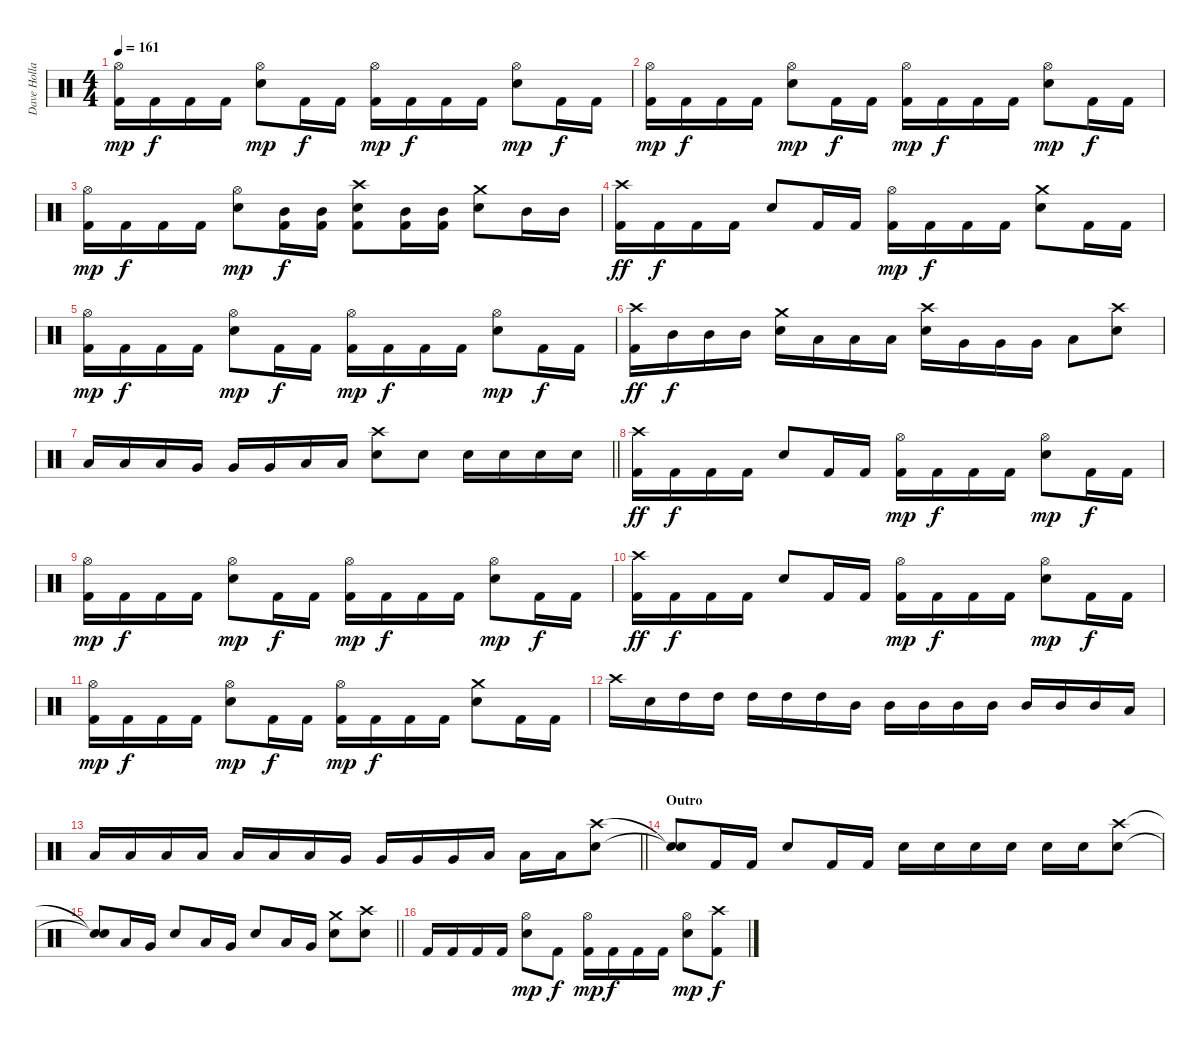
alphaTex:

\track ("Dave Holland" "Dave Holla") {instrument percussion}
\staff {score}
\articulation defaults
\ts (4 4)
\tempo 161
\clef neutral
\ks c
("Kick (hit) 2" "Hi-Hat (open)").16{dy mp} "Kick (hit) 2".16{dy f} "Kick (hit) 2".16 "Kick (hit) 2".16 ("Hi-Hat (open)" "Snare (hit) 2").8{dy mp} "Kick (hit) 2".16{dy f} "Kick (hit) 2".16 ("Kick (hit) 2" "Hi-Hat (open)").16{dy mp} "Kick (hit) 2".16{dy f} "Kick (hit) 2".16 "Kick (hit) 2".16 ("Hi-Hat (open)" "Snare (hit) 2").8{dy mp} "Kick (hit) 2".16{dy f} "Kick (hit) 2".16 |
("Kick (hit) 2" "Hi-Hat (open)").16{dy mp} "Kick (hit) 2".16{dy f} "Kick (hit) 2".16 "Kick (hit) 2".16 ("Hi-Hat (open)" "Snare (hit) 2").8{dy mp} "Kick (hit) 2".16{dy f} "Kick (hit) 2".16 ("Kick (hit) 2" "Hi-Hat (open)").16{dy mp} "Kick (hit) 2".16{dy f} "Kick (hit) 2".16 "Kick (hit) 2".16 ("Hi-Hat (open)" "Snare (hit) 2").8{dy mp} "Kick (hit) 2".16{dy f} "Kick (hit) 2".16 |
("Kick (hit) 2" "Hi-Hat (open)").16{dy mp} "Kick (hit) 2".16{dy f} "Kick (hit) 2".16 "Kick (hit) 2".16 ("Hi-Hat (open)" "Snare (hit) 2").8{dy mp} ("Kick (hit) 2" "Mid Tom (hit)").16{dy f} ("Kick (hit) 2" "Mid Tom (hit)").16 ("Kick (hit) 2" "Crash high (hit)" "Snare (hit) 2").8 ("Kick (hit) 2" "Mid Tom (hit)").16 ("Kick (hit) 2" "Mid Tom (hit)").16 ("Crash medium (hit)" "Snare (hit) 2").8 "Mid Tom (hit)".16 "Mid Tom (hit)".16 |
("Kick (hit) 2" "Crash high (hit)").16{dy ff} "Kick (hit) 2".16{dy f} "Kick (hit) 2".16 "Kick (hit) 2".16 "Snare (hit) 2".8 "Kick (hit) 2".16 "Kick (hit) 2".16 ("Kick (hit) 2" "Hi-Hat (open)").16{dy mp} "Kick (hit) 2".16{dy f} "Kick (hit) 2".16 "Kick (hit) 2".16 ("Crash medium (hit)" "Snare (hit) 2").8 "Kick (hit) 2".16 "Kick (hit) 2".16 |
("Kick (hit) 2" "Hi-Hat (open)").16{dy mp} "Kick (hit) 2".16{dy f} "Kick (hit) 2".16 "Kick (hit) 2".16 ("Hi-Hat (open)" "Snare (hit) 2").8{dy mp} "Kick (hit) 2".16{dy f} "Kick (hit) 2".16 ("Kick (hit) 2" "Hi-Hat (open)").16{dy mp} "Kick (hit) 2".16{dy f} "Kick (hit) 2".16 "Kick (hit) 2".16 ("Hi-Hat (open)" "Snare (hit) 2").8{dy mp} "Kick (hit) 2".16{dy f} "Kick (hit) 2".16 |
("Kick (hit) 2" "Crash high (hit)").16{dy ff} "Mid Tom (hit)".16{dy f} "Mid Tom (hit)".16 "Mid Tom (hit)".16 ("Crash medium (hit)" "Snare (hit) 2").16 "Low Tom (hit)".16 "Low Tom (hit)".16 "Low Tom (hit)".16 ("Crash high (hit)" "Snare (hit) 2").16 "Very Low Tom (hit)".16 "Very Low Tom (hit)".16 "Very Low Tom (hit)".16 "Low Floor Tom (hit)".8 ("Crash high (hit)" "Snare (hit) 2").8 |
\barLineRight lightlight "Low Tom (hit)".16 "Low Tom (hit)".16 "Low Tom (hit)".16 "Very Low Tom (hit)".16 "Very Low Tom (hit)".16 "Very Low Tom (hit)".16 "Low Floor Tom (hit)".16 "Low Floor Tom (hit)".16
("Crash high (hit)" "Snare (hit) 2").8 "Snare (hit) 2".8 "Snare (hit) 2".16 "Snare (hit) 2".16 "Snare (hit) 2".16 "Snare (hit) 2".16 |
("Kick (hit) 2" "Crash high (hit)").16{dy ff} "Kick (hit) 2".16{dy f} "Kick (hit) 2".16 "Kick (hit) 2".16 "Snare (hit) 2".8 "Kick (hit) 2".16 "Kick (hit) 2".16 ("Kick (hit) 2" "Hi-Hat (open)").16{dy mp} "Kick (hit) 2".16{dy f} "Kick (hit) 2".16 "Kick (hit) 2".16 ("Hi-Hat (open)" "Snare (hit) 2").8{dy mp} "Kick (hit) 2".16{dy f} "Kick (hit) 2".16 |
("Kick (hit) 2" "Hi-Hat (open)").16{dy mp} "Kick (hit) 2".16{dy f} "Kick (hit) 2".16 "Kick (hit) 2".16 ("Hi-Hat (open)" "Snare (hit) 2").8{dy mp} "Kick (hit) 2".16{dy f} "Kick (hit) 2".16 ("Kick (hit) 2" "Hi-Hat (open)").16{dy mp} "Kick (hit) 2".16{dy f} "Kick (hit) 2".16 "Kick (hit) 2".16 ("Hi-Hat (open)" "Snare (hit) 2").8{dy mp} "Kick (hit) 2".16{dy f} "Kick (hit) 2".16 |
("Kick (hit) 2" "Crash high (hit)").16{dy ff} "Kick (hit) 2".16{dy f} "Kick (hit) 2".16 "Kick (hit) 2".16 "Snare (hit) 2".8 "Kick (hit) 2".16 "Kick (hit) 2".16 ("Kick (hit) 2" "Hi-Hat (open)").16{dy mp} "Kick (hit) 2".16{dy f} "Kick (hit) 2".16 "Kick (hit) 2".16 ("Hi-Hat (open)" "Snare (hit) 2").8{dy mp} "Kick (hit) 2".16{dy f} "Kick (hit) 2".16 |
("Kick (hit) 2" "Hi-Hat (open)").16{dy mp} "Kick (hit) 2".16{dy f} "Kick (hit) 2".16 "Kick (hit) 2".16 ("Hi-Hat (open)" "Snare (hit) 2").8{dy mp} "Kick (hit) 2".16{dy f} "Kick (hit) 2".16 ("Kick (hit) 2" "Hi-Hat (open)").16{dy mp} "Kick (hit) 2".16{dy f} "Kick (hit) 2".16 "Kick (hit) 2".16 ("Crash medium (hit)" "Snare (hit) 2").8 "Kick (hit) 2".16 "Kick (hit) 2".16 |
"Crash high (hit)".16 "Snare (hit) 2".16 "High Tom (hit)".16 "High Tom (hit)".16 "High Tom (hit)".16 "High Tom (hit)".16 "High Tom (hit)".16 "Mid Tom (hit)".16 "Mid Tom (hit)".16 "Mid Tom (hit)".16 "Mid Tom (hit)".16 "Mid Tom (hit)".16 "Mid Tom (hit)".16 "Mid Tom (hit)".16 "Mid Tom (hit)".16 "Low Tom (hit)".16 |
\barLineRight lightlight "Low Tom (hit)".16 "Low Tom (hit)".16 "Low Tom (hit)".16 "Low Tom (hit)".16 "Low Tom (hit)".16 "Low Tom (hit)".16 "Low Tom (hit)".16 "Very Low Tom (hit)".16 "Very Low Tom (hit)".16 "Very Low Tom (hit)".16 "Very Low Tom (hit)".16 "Low Floor Tom (hit)".16 "Low Floor Tom (hit)".16 "Low Floor Tom (hit)".16
("Crash high (hit)" "Snare (hit) 2").8 |
\section ("" "Outro")
("Snare (hit)"{t} "Snare (hit)"{t}).8 "Kick (hit) 2".16 "Kick (hit) 2".16 "Snare (hit) 2".8 "Kick (hit) 2".16 "Kick (hit) 2".16 "Snare (hit) 2".16 "Snare (hit) 2".16 "Snare (hit) 2".16 "Snare (hit) 2".16 "Snare (hit) 2".16 "Snare (hit) 2".16 ("Crash high (hit)" "Snare (hit) 2").8 |
\barLineRight lightlight
("Snare (hit)"{t} "Snare (hit)"{t}).8 "Low Tom (hit)".16 "Very Low Tom (hit)".16 "Snare (hit) 2".8 "Low Tom (hit)".16 "Very Low Tom (hit)".16 "Snare (hit) 2".8 "Low Tom (hit)".16 "Very Low Tom (hit)".16 ("Crash medium (hit)" "Snare (hit) 2").8 ("Crash high (hit)" "Snare (hit) 2").8 |
"Kick (hit) 2".16 "Kick (hit) 2".16 "Kick (hit) 2".16 "Kick (hit) 2".16 ("Hi-Hat (open)" "Snare (hit) 2").8{dy mp} "Kick (hit) 2".8{dy f} ("Kick (hit) 2" "Hi-Hat (open)").16{dy mp} "Kick (hit) 2".16{dy f} "Kick (hit) 2".16 "Kick (hit) 2".16 ("Hi-Hat (open)" "Snare (hit) 2").8{dy mp} ("Kick (hit) 2" "Crash high (hit)").8{dy f}
